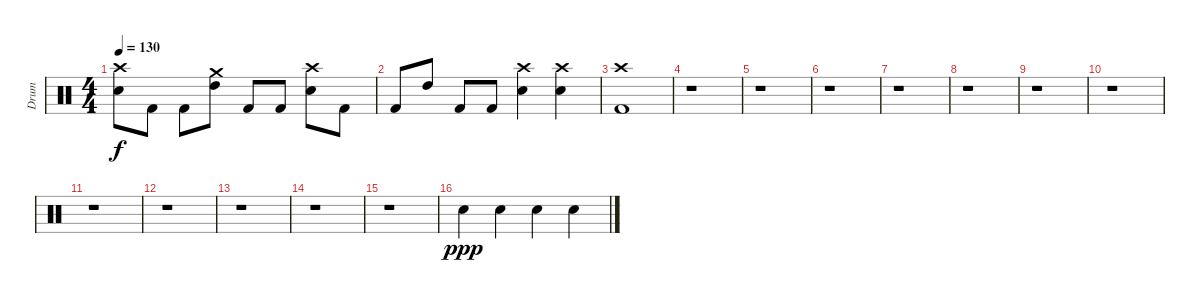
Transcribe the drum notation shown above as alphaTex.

\track ("Drum" "Drum") {instrument percussion}
\staff {score}
\articulation defaults
\ts (4 4)
\tempo 130
\clef neutral
\ks c
("Snare (hit) 2" "Crash high (hit)").8{dy f} "Kick (hit) 2".8 "Kick (hit) 2".8 ("High Tom (hit)" "Crash medium (hit)").8 "Kick (hit) 2".8 "Kick (hit) 2".8 ("Snare (hit) 2" "Crash high (hit)").8 "Kick (hit) 2".8 |
"Kick (hit) 2".8 "High Tom (hit)".8 "Kick (hit) 2".8 "Kick (hit) 2".8 ("Snare (hit) 2" "Crash high (hit)").4 ("Snare (hit) 2" "Crash high (hit)").4 |
("Kick (hit) 2" "Crash high (hit)").1 |
r.1 |
r.1 |
r.1 |
r.1 |
r.1 |
r.1 |
r.1 |
r.1 |
r.1 |
r.1 |
r.1 |
r.1 |
"Snare (hit) 2".4{dy ppp} "Snare (hit) 2".4 "Snare (hit) 2".4 "Snare (hit) 2".4
